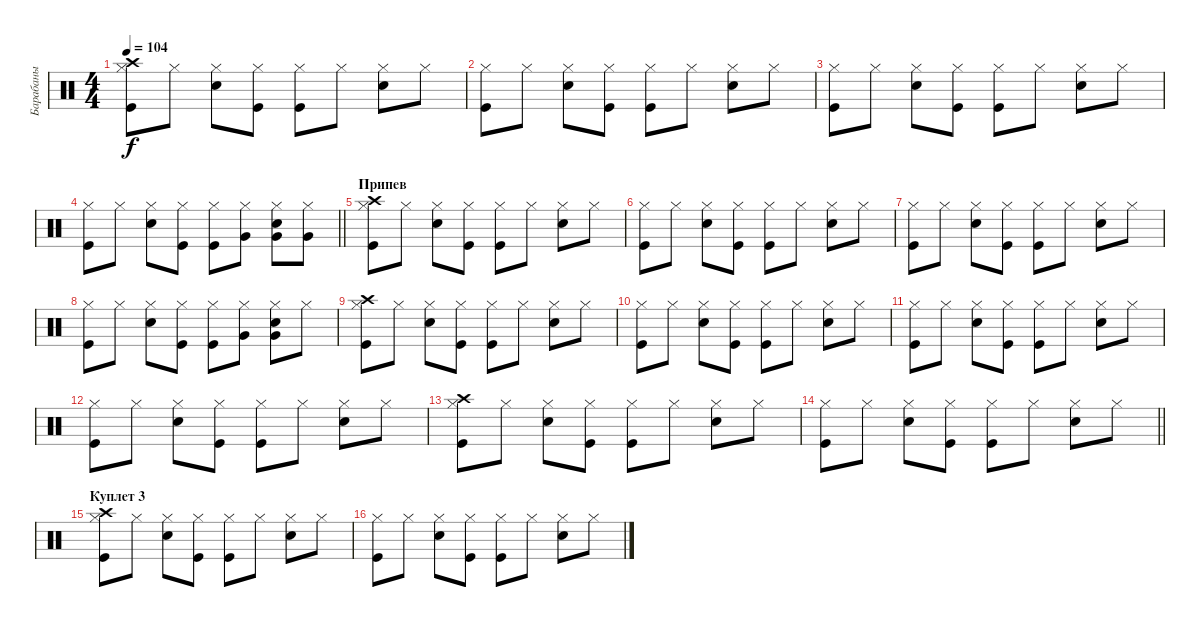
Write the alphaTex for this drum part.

\track ("Барабаны" "Барабаны") {instrument percussion}
\staff {score}
\articulation defaults
\ts (4 4)
\tempo 104
\clef neutral
\ks c
("Kick (hit)" "Hi-Hat (closed)" "Crash high (hit)").8{dy f} "Hi-Hat (closed)".8 ("Snare (hit) 2" "Hi-Hat (closed)").8 ("Kick (hit)" "Hi-Hat (closed)").8 ("Kick (hit)" "Hi-Hat (closed)").8 "Hi-Hat (closed)".8 ("Snare (hit) 2" "Hi-Hat (closed)").8 "Hi-Hat (closed)".8 |
("Kick (hit)" "Hi-Hat (closed)").8 "Hi-Hat (closed)".8 ("Snare (hit) 2" "Hi-Hat (closed)").8 ("Kick (hit)" "Hi-Hat (closed)").8 ("Kick (hit)" "Hi-Hat (closed)").8 "Hi-Hat (closed)".8 ("Snare (hit) 2" "Hi-Hat (closed)").8 "Hi-Hat (closed)".8 |
("Kick (hit)" "Hi-Hat (closed)").8 "Hi-Hat (closed)".8 ("Snare (hit) 2" "Hi-Hat (closed)").8 ("Kick (hit)" "Hi-Hat (closed)").8 ("Kick (hit)" "Hi-Hat (closed)").8 "Hi-Hat (closed)".8 ("Snare (hit) 2" "Hi-Hat (closed)").8 "Hi-Hat (closed)".8 |
\barLineRight lightlight
("Kick (hit)" "Hi-Hat (closed)").8 "Hi-Hat (closed)".8 ("Snare (hit) 2" "Hi-Hat (closed)").8 ("Kick (hit)" "Hi-Hat (closed)").8 ("Kick (hit)" "Hi-Hat (closed)").8 ("Hi-Hat (closed)" "Very Low Tom (hit)").8 ("Snare (hit) 2" "Hi-Hat (closed)" "Very Low Tom (hit)").8 ("Hi-Hat (closed)" "Very Low Tom (hit)").8 |
\section ("" "Припев")
("Kick (hit)" "Hi-Hat (closed)" "Crash high (hit)").8 "Hi-Hat (closed)".8 ("Snare (hit) 2" "Hi-Hat (closed)").8 ("Kick (hit)" "Hi-Hat (closed)").8 ("Kick (hit)" "Hi-Hat (closed)").8 "Hi-Hat (closed)".8 ("Snare (hit) 2" "Hi-Hat (closed)").8 "Hi-Hat (closed)".8 |
("Kick (hit)" "Hi-Hat (closed)").8 "Hi-Hat (closed)".8 ("Snare (hit) 2" "Hi-Hat (closed)").8 ("Kick (hit)" "Hi-Hat (closed)").8 ("Kick (hit)" "Hi-Hat (closed)").8 "Hi-Hat (closed)".8 ("Snare (hit) 2" "Hi-Hat (closed)").8 "Hi-Hat (closed)".8 |
("Kick (hit)" "Hi-Hat (closed)").8 "Hi-Hat (closed)".8 ("Snare (hit) 2" "Hi-Hat (closed)").8 ("Kick (hit)" "Hi-Hat (closed)").8 ("Kick (hit)" "Hi-Hat (closed)").8 "Hi-Hat (closed)".8 ("Snare (hit) 2" "Hi-Hat (closed)").8 "Hi-Hat (closed)".8 |
("Kick (hit)" "Hi-Hat (closed)").8 "Hi-Hat (closed)".8 ("Snare (hit) 2" "Hi-Hat (closed)").8 ("Kick (hit)" "Hi-Hat (closed)").8 ("Kick (hit)" "Hi-Hat (closed)").8 ("Hi-Hat (closed)" "Very Low Tom (hit)").8 ("Snare (hit) 2" "Hi-Hat (closed)" "Very Low Tom (hit)").8 "Hi-Hat (closed)".8 |
("Kick (hit)" "Hi-Hat (closed)" "Crash high (hit)").8 "Hi-Hat (closed)".8 ("Snare (hit) 2" "Hi-Hat (closed)").8 ("Kick (hit)" "Hi-Hat (closed)").8 ("Kick (hit)" "Hi-Hat (closed)").8 "Hi-Hat (closed)".8 ("Snare (hit) 2" "Hi-Hat (closed)").8 "Hi-Hat (closed)".8 |
("Kick (hit)" "Hi-Hat (closed)").8 "Hi-Hat (closed)".8 ("Snare (hit) 2" "Hi-Hat (closed)").8 ("Kick (hit)" "Hi-Hat (closed)").8 ("Kick (hit)" "Hi-Hat (closed)").8 "Hi-Hat (closed)".8 ("Snare (hit) 2" "Hi-Hat (closed)").8 "Hi-Hat (closed)".8 |
("Kick (hit)" "Hi-Hat (closed)").8 "Hi-Hat (closed)".8 ("Snare (hit) 2" "Hi-Hat (closed)").8 ("Kick (hit)" "Hi-Hat (closed)").8 ("Kick (hit)" "Hi-Hat (closed)").8 "Hi-Hat (closed)".8 ("Snare (hit) 2" "Hi-Hat (closed)").8 "Hi-Hat (closed)".8 |
("Kick (hit)" "Hi-Hat (closed)").8 "Hi-Hat (closed)".8 ("Snare (hit) 2" "Hi-Hat (closed)").8 ("Kick (hit)" "Hi-Hat (closed)").8 ("Kick (hit)" "Hi-Hat (closed)").8 "Hi-Hat (closed)".8 ("Snare (hit) 2" "Hi-Hat (closed)").8 "Hi-Hat (closed)".8 |
("Kick (hit)" "Hi-Hat (closed)" "Crash high (hit)").8 "Hi-Hat (closed)".8 ("Snare (hit) 2" "Hi-Hat (closed)").8 ("Kick (hit)" "Hi-Hat (closed)").8 ("Kick (hit)" "Hi-Hat (closed)").8 "Hi-Hat (closed)".8 ("Snare (hit) 2" "Hi-Hat (closed)").8 "Hi-Hat (closed)".8 |
\barLineRight lightlight
("Kick (hit)" "Hi-Hat (closed)").8 "Hi-Hat (closed)".8 ("Snare (hit) 2" "Hi-Hat (closed)").8 ("Kick (hit)" "Hi-Hat (closed)").8 ("Kick (hit)" "Hi-Hat (closed)").8 "Hi-Hat (closed)".8 ("Snare (hit) 2" "Hi-Hat (closed)").8 "Hi-Hat (closed)".8 |
\section ("" "Куплет 3")
("Kick (hit)" "Hi-Hat (closed)" "Crash high (hit)").8 "Hi-Hat (closed)".8 ("Snare (hit) 2" "Hi-Hat (closed)").8 ("Kick (hit)" "Hi-Hat (closed)").8 ("Kick (hit)" "Hi-Hat (closed)").8 "Hi-Hat (closed)".8 ("Snare (hit) 2" "Hi-Hat (closed)").8 "Hi-Hat (closed)".8 |
("Kick (hit)" "Hi-Hat (closed)").8 "Hi-Hat (closed)".8 ("Snare (hit) 2" "Hi-Hat (closed)").8 ("Kick (hit)" "Hi-Hat (closed)").8 ("Kick (hit)" "Hi-Hat (closed)").8 "Hi-Hat (closed)".8 ("Snare (hit) 2" "Hi-Hat (closed)").8 "Hi-Hat (closed)".8
